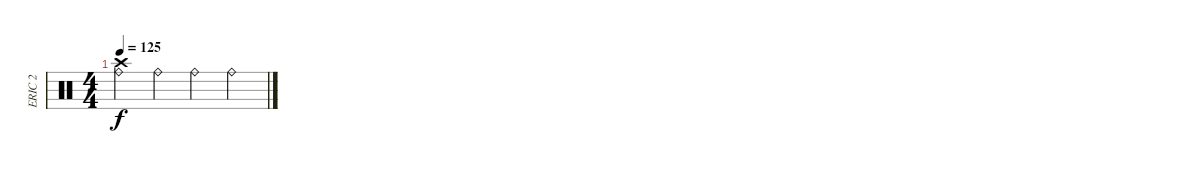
\track ("ERIC 2" "ERIC 2") {instrument percussion}
\staff {score}
\articulation defaults
\ts (4 4)
\tempo 125
\clef neutral
\ks c
("Crash high (hit)" "Ride (bell)").4{dy f} "Ride (bell)".4 "Ride (bell)".4 "Ride (bell)".4
